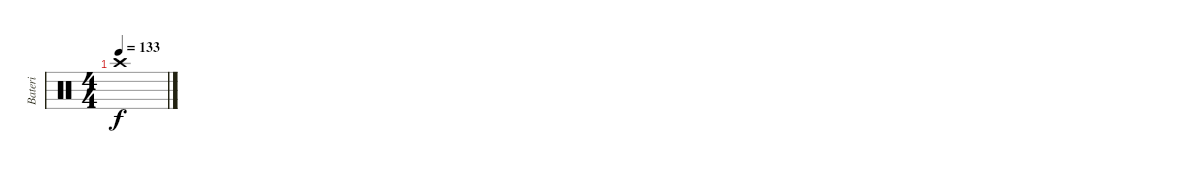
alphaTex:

\track ("Bateri" "Bateri") {instrument percussion}
\staff {score}
\articulation defaults
\ts (4 4)
\tempo 133
\clef neutral
\ks c "Crash high (hit)".1{dy f}
